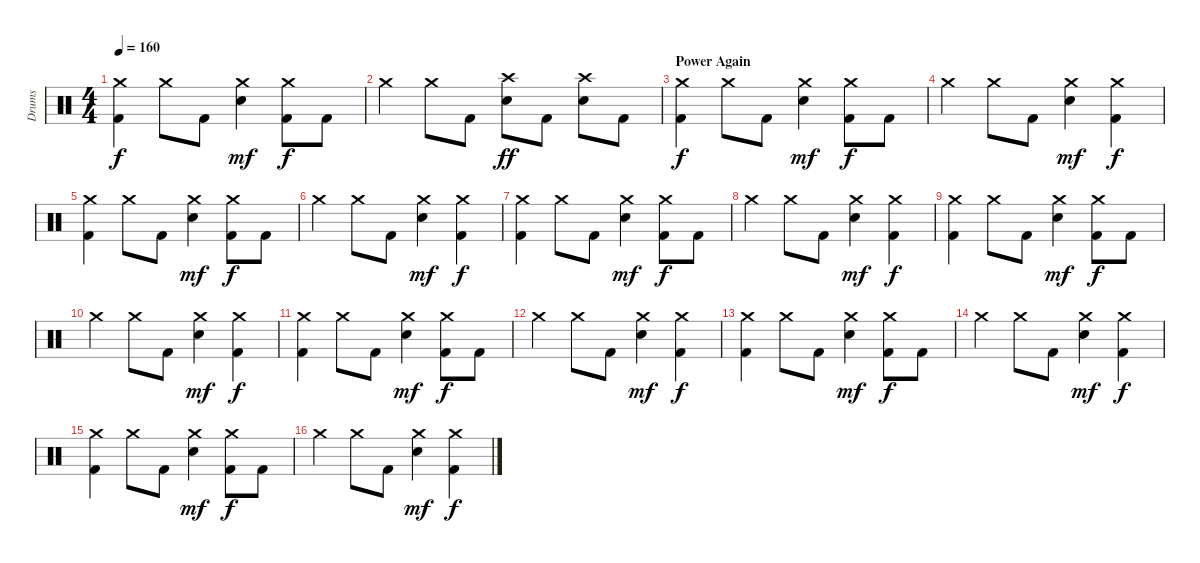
\track ("Drums" "Drums") {instrument percussion}
\staff {score}
\articulation defaults
\ts (4 4)
\tempo 160
\clef neutral
\ks c
("Crash medium (hit)" "Kick (hit) 2").4{dy f} "Crash medium (hit)".8 "Kick (hit) 2".8 ("Crash medium (hit)" "Electric Snare (hit)").4{dy mf} ("Crash medium (hit)" "Kick (hit) 2").8{dy f} "Kick (hit) 2".8 |
"Crash medium (hit)".4 "Crash medium (hit)".8 "Kick (hit) 2".8 ("Crash high (hit)" "Electric Snare (hit)").8{dy ff} "Kick (hit) 2".8 ("Crash high (hit)" "Electric Snare (hit)").8 "Kick (hit) 2".8 |
\section ("" "Power Again")
("Crash medium (hit)" "Kick (hit) 2").4{dy f} "Crash medium (hit)".8 "Kick (hit) 2".8 ("Crash medium (hit)" "Electric Snare (hit)").4{dy mf} ("Crash medium (hit)" "Kick (hit) 2").8{dy f} "Kick (hit) 2".8 |
"Crash medium (hit)".4 "Crash medium (hit)".8 "Kick (hit) 2".8 ("Crash medium (hit)" "Electric Snare (hit)").4{dy mf} ("Crash medium (hit)" "Kick (hit) 2").4{dy f} |
("Crash medium (hit)" "Kick (hit) 2").4 "Crash medium (hit)".8 "Kick (hit) 2".8 ("Crash medium (hit)" "Electric Snare (hit)").4{dy mf} ("Crash medium (hit)" "Kick (hit) 2").8{dy f} "Kick (hit) 2".8 |
"Crash medium (hit)".4 "Crash medium (hit)".8 "Kick (hit) 2".8 ("Crash medium (hit)" "Electric Snare (hit)").4{dy mf} ("Crash medium (hit)" "Kick (hit) 2").4{dy f} |
("Crash medium (hit)" "Kick (hit) 2").4 "Crash medium (hit)".8 "Kick (hit) 2".8 ("Crash medium (hit)" "Electric Snare (hit)").4{dy mf} ("Crash medium (hit)" "Kick (hit) 2").8{dy f} "Kick (hit) 2".8 |
"Crash medium (hit)".4 "Crash medium (hit)".8 "Kick (hit) 2".8 ("Crash medium (hit)" "Electric Snare (hit)").4{dy mf} ("Crash medium (hit)" "Kick (hit) 2").4{dy f} |
("Crash medium (hit)" "Kick (hit) 2").4 "Crash medium (hit)".8 "Kick (hit) 2".8 ("Crash medium (hit)" "Electric Snare (hit)").4{dy mf} ("Crash medium (hit)" "Kick (hit) 2").8{dy f} "Kick (hit) 2".8 |
"Crash medium (hit)".4 "Crash medium (hit)".8 "Kick (hit) 2".8 ("Crash medium (hit)" "Electric Snare (hit)").4{dy mf} ("Crash medium (hit)" "Kick (hit) 2").4{dy f} |
("Crash medium (hit)" "Kick (hit) 2").4{volume 10} "Crash medium (hit)".8 "Kick (hit) 2".8 ("Crash medium (hit)" "Electric Snare (hit)").4{dy mf} ("Crash medium (hit)" "Kick (hit) 2").8{dy f} "Kick (hit) 2".8 |
"Crash medium (hit)".4 "Crash medium (hit)".8 "Kick (hit) 2".8 ("Crash medium (hit)" "Electric Snare (hit)").4{dy mf} ("Crash medium (hit)" "Kick (hit) 2").4{dy f} |
("Crash medium (hit)" "Kick (hit) 2").4 "Crash medium (hit)".8 "Kick (hit) 2".8 ("Crash medium (hit)" "Electric Snare (hit)").4{dy mf} ("Crash medium (hit)" "Kick (hit) 2").8{dy f} "Kick (hit) 2".8 |
"Crash medium (hit)".4 "Crash medium (hit)".8 "Kick (hit) 2".8 ("Crash medium (hit)" "Electric Snare (hit)").4{dy mf} ("Crash medium (hit)" "Kick (hit) 2").4{dy f} |
("Crash medium (hit)" "Kick (hit) 2").4 "Crash medium (hit)".8 "Kick (hit) 2".8 ("Crash medium (hit)" "Electric Snare (hit)").4{dy mf} ("Crash medium (hit)" "Kick (hit) 2").8{dy f} "Kick (hit) 2".8 |
"Crash medium (hit)".4 "Crash medium (hit)".8 "Kick (hit) 2".8 ("Crash medium (hit)" "Electric Snare (hit)").4{dy mf} ("Crash medium (hit)" "Kick (hit) 2").4{dy f}
